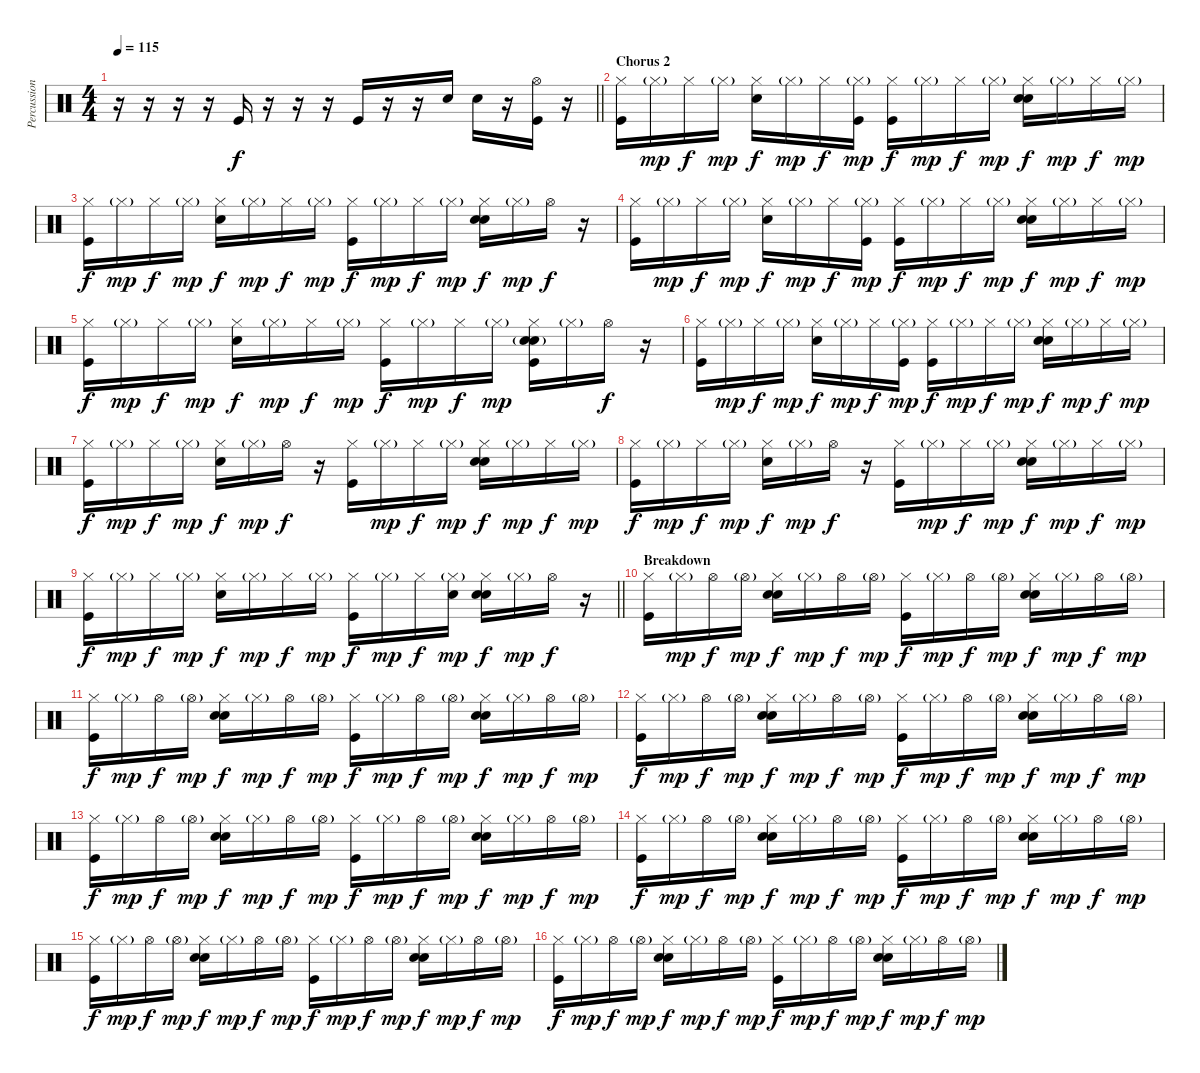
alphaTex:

\track ("Percussion" "Percussion") {instrument percussion bank 177}
\staff {score}
\articulation defaults
\ts (4 4)
\tempo 115
\clef neutral
\barLineRight lightlight
\ks c
r.16{dy f} r.16 r.16 r.16 "Kick (hit)".16 r.16 r.16 r.16 "Kick (hit)".16 r.16 r.16 "Snare (hit) 2".16 "Snare (hit) 2".16 r.16 ("Hi-Hat (open)" "Kick (hit)").16 r.16 |
\section ("" "Chorus 2")
("Hi-Hat (closed)" "Kick (hit)").16 "Hi-Hat (closed)"{g}.16{dy mp} "Hi-Hat (closed)".16{dy f} "Hi-Hat (closed)"{g}.16{dy mp} ("Hi-Hat (closed)" "Snare (hit) 2").16{dy f} "Hi-Hat (closed)"{g}.16{dy mp} "Hi-Hat (closed)".16{dy f} ("Hi-Hat (closed)"{g} "Kick (hit)").16{dy mp} ("Hi-Hat (closed)" "Kick (hit)").16{dy f} "Hi-Hat (closed)"{g}.16{dy mp} "Hi-Hat (closed)".16{dy f} "Hi-Hat (closed)"{g}.16{dy mp} ("Hi-Hat (closed)" "Hand Clap (hit)" "Snare (hit) 2").16{dy f} "Hi-Hat (closed)"{g}.16{dy mp} "Hi-Hat (closed)".16{dy f} "Hi-Hat (closed)"{g}.16{dy mp} |
("Hi-Hat (closed)" "Kick (hit)").16{dy f} "Hi-Hat (closed)"{g}.16{dy mp} "Hi-Hat (closed)".16{dy f} "Hi-Hat (closed)"{g}.16{dy mp} ("Hi-Hat (closed)" "Snare (hit) 2").16{dy f} "Hi-Hat (closed)"{g}.16{dy mp} "Hi-Hat (closed)".16{dy f} "Hi-Hat (closed)"{g}.16{dy mp} ("Hi-Hat (closed)" "Kick (hit)").16{dy f} "Hi-Hat (closed)"{g}.16{dy mp} "Hi-Hat (closed)".16{dy f} "Hi-Hat (closed)"{g}.16{dy mp} ("Hi-Hat (closed)" "Hand Clap (hit)" "Snare (hit) 2").16{dy f} "Hi-Hat (closed)"{g}.16{dy mp} "Hi-Hat (open)".16{dy f} r.16 |
("Hi-Hat (closed)" "Kick (hit)").16 "Hi-Hat (closed)"{g}.16{dy mp} "Hi-Hat (closed)".16{dy f} "Hi-Hat (closed)"{g}.16{dy mp} ("Hi-Hat (closed)" "Snare (hit) 2").16{dy f} "Hi-Hat (closed)"{g}.16{dy mp} "Hi-Hat (closed)".16{dy f} ("Hi-Hat (closed)"{g} "Kick (hit)").16{dy mp} ("Hi-Hat (closed)" "Kick (hit)").16{dy f} "Hi-Hat (closed)"{g}.16{dy mp} "Hi-Hat (closed)".16{dy f} "Hi-Hat (closed)"{g}.16{dy mp} ("Hi-Hat (closed)" "Hand Clap (hit)" "Snare (hit) 2").16{dy f} "Hi-Hat (closed)"{g}.16{dy mp} "Hi-Hat (closed)".16{dy f} "Hi-Hat (closed)"{g}.16{dy mp} |
("Hi-Hat (closed)" "Kick (hit)").16{dy f} "Hi-Hat (closed)"{g}.16{dy mp} "Hi-Hat (closed)".16{dy f} "Hi-Hat (closed)"{g}.16{dy mp} ("Hi-Hat (closed)" "Snare (hit) 2").16{dy f} "Hi-Hat (closed)"{g}.16{dy mp} "Hi-Hat (closed)".16{dy f} "Hi-Hat (closed)"{g}.16{dy mp} ("Hi-Hat (closed)" "Kick (hit)").16{dy f} "Hi-Hat (closed)"{g}.16{dy mp} "Hi-Hat (closed)".16{dy f} "Hi-Hat (closed)"{g}.16{dy mp} ("Hi-Hat (closed)" "Hand Clap (hit)" "Snare (hit) 2"{g} "Kick (hit)").16 "Hi-Hat (closed)"{g}.16 "Hi-Hat (open)".16{dy f} r.16 |
("Hi-Hat (closed)" "Kick (hit)").16 "Hi-Hat (closed)"{g}.16{dy mp} "Hi-Hat (closed)".16{dy f} "Hi-Hat (closed)"{g}.16{dy mp} ("Hi-Hat (closed)" "Snare (hit) 2").16{dy f} "Hi-Hat (closed)"{g}.16{dy mp} "Hi-Hat (closed)".16{dy f} ("Hi-Hat (closed)"{g} "Kick (hit)").16{dy mp} ("Hi-Hat (closed)" "Kick (hit)").16{dy f} "Hi-Hat (closed)"{g}.16{dy mp} "Hi-Hat (closed)".16{dy f} "Hi-Hat (closed)"{g}.16{dy mp} ("Hi-Hat (closed)" "Hand Clap (hit)" "Snare (hit) 2").16{dy f} "Hi-Hat (closed)"{g}.16{dy mp} "Hi-Hat (closed)".16{dy f} "Hi-Hat (closed)"{g}.16{dy mp} |
("Hi-Hat (closed)" "Kick (hit)").16{dy f} "Hi-Hat (closed)"{g}.16{dy mp} "Hi-Hat (closed)".16{dy f} "Hi-Hat (closed)"{g}.16{dy mp} ("Hi-Hat (closed)" "Snare (hit) 2").16{dy f} "Hi-Hat (closed)"{g}.16{dy mp} "Hi-Hat (open)".16{dy f} r.16 ("Hi-Hat (closed)" "Kick (hit)").16 "Hi-Hat (closed)"{g}.16{dy mp} "Hi-Hat (closed)".16{dy f} "Hi-Hat (closed)"{g}.16{dy mp} ("Hi-Hat (closed)" "Hand Clap (hit)" "Snare (hit) 2").16{dy f} "Hi-Hat (closed)"{g}.16{dy mp} "Hi-Hat (closed)".16{dy f} "Hi-Hat (closed)"{g}.16{dy mp} |
("Hi-Hat (closed)" "Kick (hit)").16{dy f} "Hi-Hat (closed)"{g}.16{dy mp} "Hi-Hat (closed)".16{dy f} "Hi-Hat (closed)"{g}.16{dy mp} ("Hi-Hat (closed)" "Snare (hit) 2").16{dy f} "Hi-Hat (closed)"{g}.16{dy mp} "Hi-Hat (open)".16{dy f} r.16 ("Hi-Hat (closed)" "Kick (hit)").16 "Hi-Hat (closed)"{g}.16{dy mp} "Hi-Hat (closed)".16{dy f} "Hi-Hat (closed)"{g}.16{dy mp} ("Hi-Hat (closed)" "Hand Clap (hit)" "Snare (hit) 2").16{dy f} "Hi-Hat (closed)"{g}.16{dy mp} "Hi-Hat (closed)".16{dy f} "Hi-Hat (closed)"{g}.16{dy mp} |
\barLineRight lightlight
("Hi-Hat (closed)" "Kick (hit)").16{dy f} "Hi-Hat (closed)"{g}.16{dy mp} "Hi-Hat (closed)".16{dy f} "Hi-Hat (closed)"{g}.16{dy mp} ("Hi-Hat (closed)" "Snare (hit) 2").16{dy f} "Hi-Hat (closed)"{g}.16{dy mp} "Hi-Hat (closed)".16{dy f} "Hi-Hat (closed)"{g}.16{dy mp} ("Hi-Hat (closed)" "Kick (hit)").16{dy f} "Hi-Hat (closed)"{g}.16{dy mp} "Hi-Hat (closed)".16{dy f} ("Hi-Hat (closed)"{g} "Snare (hit) 2").16{dy mp} ("Hi-Hat (closed)" "Hand Clap (hit)" "Snare (hit) 2").16{dy f} "Hi-Hat (closed)"{g}.16{dy mp} "Hi-Hat (open)".16{dy f} r.16 |
\section ("" "Breakdown")
("Hi-Hat (closed)" "Kick (hit)").16 "Hi-Hat (closed)"{g}.16{dy mp} "Hi-Hat (open)".16{dy f} "Hi-Hat (open)"{g}.16{dy mp} ("Hi-Hat (closed)" "Hand Clap (hit)" "Snare (hit) 2").16{dy f} "Hi-Hat (closed)"{g}.16{dy mp} "Hi-Hat (open)".16{dy f} "Hi-Hat (open)"{g}.16{dy mp} ("Hi-Hat (closed)" "Kick (hit)").16{dy f} "Hi-Hat (closed)"{g}.16{dy mp} "Hi-Hat (open)".16{dy f} "Hi-Hat (open)"{g}.16{dy mp} ("Hi-Hat (closed)" "Hand Clap (hit)" "Snare (hit) 2").16{dy f} "Hi-Hat (closed)"{g}.16{dy mp} "Hi-Hat (open)".16{dy f} "Hi-Hat (open)"{g}.16{dy mp} |
("Hi-Hat (closed)" "Kick (hit)").16{dy f} "Hi-Hat (closed)"{g}.16{dy mp} "Hi-Hat (open)".16{dy f} "Hi-Hat (open)"{g}.16{dy mp} ("Hi-Hat (closed)" "Hand Clap (hit)" "Snare (hit) 2").16{dy f} "Hi-Hat (closed)"{g}.16{dy mp} "Hi-Hat (open)".16{dy f} "Hi-Hat (open)"{g}.16{dy mp} ("Hi-Hat (closed)" "Kick (hit)").16{dy f} "Hi-Hat (closed)"{g}.16{dy mp} "Hi-Hat (open)".16{dy f} "Hi-Hat (open)"{g}.16{dy mp} ("Hi-Hat (closed)" "Hand Clap (hit)" "Snare (hit) 2").16{dy f} "Hi-Hat (closed)"{g}.16{dy mp} "Hi-Hat (open)".16{dy f} "Hi-Hat (open)"{g}.16{dy mp} |
("Hi-Hat (closed)" "Kick (hit)").16{dy f} "Hi-Hat (closed)"{g}.16{dy mp} "Hi-Hat (open)".16{dy f} "Hi-Hat (open)"{g}.16{dy mp} ("Hi-Hat (closed)" "Hand Clap (hit)" "Snare (hit) 2").16{dy f} "Hi-Hat (closed)"{g}.16{dy mp} "Hi-Hat (open)".16{dy f} "Hi-Hat (open)"{g}.16{dy mp} ("Hi-Hat (closed)" "Kick (hit)").16{dy f} "Hi-Hat (closed)"{g}.16{dy mp} "Hi-Hat (open)".16{dy f} "Hi-Hat (open)"{g}.16{dy mp} ("Hi-Hat (closed)" "Hand Clap (hit)" "Snare (hit) 2").16{dy f} "Hi-Hat (closed)"{g}.16{dy mp} "Hi-Hat (open)".16{dy f} "Hi-Hat (open)"{g}.16{dy mp} |
("Hi-Hat (closed)" "Kick (hit)").16{dy f} "Hi-Hat (closed)"{g}.16{dy mp} "Hi-Hat (open)".16{dy f} "Hi-Hat (open)"{g}.16{dy mp} ("Hi-Hat (closed)" "Hand Clap (hit)" "Snare (hit) 2").16{dy f} "Hi-Hat (closed)"{g}.16{dy mp} "Hi-Hat (open)".16{dy f} "Hi-Hat (open)"{g}.16{dy mp} ("Hi-Hat (closed)" "Kick (hit)").16{dy f} "Hi-Hat (closed)"{g}.16{dy mp} "Hi-Hat (open)".16{dy f} "Hi-Hat (open)"{g}.16{dy mp} ("Hi-Hat (closed)" "Hand Clap (hit)" "Snare (hit) 2").16{dy f} "Hi-Hat (closed)"{g}.16{dy mp} "Hi-Hat (open)".16{dy f} "Hi-Hat (open)"{g}.16{dy mp} |
("Hi-Hat (closed)" "Kick (hit)").16{dy f} "Hi-Hat (closed)"{g}.16{dy mp} "Hi-Hat (open)".16{dy f} "Hi-Hat (open)"{g}.16{dy mp} ("Hi-Hat (closed)" "Hand Clap (hit)" "Snare (hit) 2").16{dy f} "Hi-Hat (closed)"{g}.16{dy mp} "Hi-Hat (open)".16{dy f} "Hi-Hat (open)"{g}.16{dy mp} ("Hi-Hat (closed)" "Kick (hit)").16{dy f} "Hi-Hat (closed)"{g}.16{dy mp} "Hi-Hat (open)".16{dy f} "Hi-Hat (open)"{g}.16{dy mp} ("Hi-Hat (closed)" "Hand Clap (hit)" "Snare (hit) 2").16{dy f} "Hi-Hat (closed)"{g}.16{dy mp} "Hi-Hat (open)".16{dy f} "Hi-Hat (open)"{g}.16{dy mp} |
("Hi-Hat (closed)" "Kick (hit)").16{dy f} "Hi-Hat (closed)"{g}.16{dy mp} "Hi-Hat (open)".16{dy f} "Hi-Hat (open)"{g}.16{dy mp} ("Hi-Hat (closed)" "Hand Clap (hit)" "Snare (hit) 2").16{dy f} "Hi-Hat (closed)"{g}.16{dy mp} "Hi-Hat (open)".16{dy f} "Hi-Hat (open)"{g}.16{dy mp} ("Hi-Hat (closed)" "Kick (hit)").16{dy f} "Hi-Hat (closed)"{g}.16{dy mp} "Hi-Hat (open)".16{dy f} "Hi-Hat (open)"{g}.16{dy mp} ("Hi-Hat (closed)" "Hand Clap (hit)" "Snare (hit) 2").16{dy f} "Hi-Hat (closed)"{g}.16{dy mp} "Hi-Hat (open)".16{dy f} "Hi-Hat (open)"{g}.16{dy mp} |
("Hi-Hat (closed)" "Kick (hit)").16{dy f} "Hi-Hat (closed)"{g}.16{dy mp} "Hi-Hat (open)".16{dy f} "Hi-Hat (open)"{g}.16{dy mp} ("Hi-Hat (closed)" "Hand Clap (hit)" "Snare (hit) 2").16{dy f} "Hi-Hat (closed)"{g}.16{dy mp} "Hi-Hat (open)".16{dy f} "Hi-Hat (open)"{g}.16{dy mp} ("Hi-Hat (closed)" "Kick (hit)").16{dy f} "Hi-Hat (closed)"{g}.16{dy mp} "Hi-Hat (open)".16{dy f} "Hi-Hat (open)"{g}.16{dy mp} ("Hi-Hat (closed)" "Hand Clap (hit)" "Snare (hit) 2").16{dy f} "Hi-Hat (closed)"{g}.16{dy mp} "Hi-Hat (open)".16{dy f} "Hi-Hat (open)"{g}.16{dy mp}
